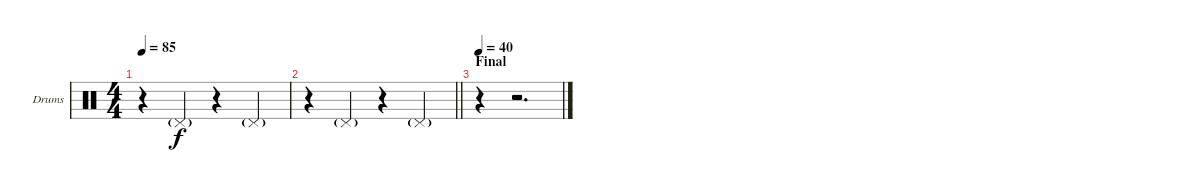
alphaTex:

\bracketExtendMode groupsimilarinstruments
\firstSystemTrackNameOrientation horizontal
\otherSystemsTrackNameOrientation horizontal
\track ("Drumkit" "Drums") {instrument percussion}
\staff {score}
\articulation defaults
\ts (4 4)
\tempo 85
\clef neutral
\ks c
r.4{dy f} "Pedal Hi-Hat (hit)"{g}.4 r.4 "Pedal Hi-Hat (hit)"{g}.4 |
\barLineRight lightlight
r.4 "Pedal Hi-Hat (hit)"{g}.4 r.4 "Pedal Hi-Hat (hit)"{g}.4 |
\section ("" "Final")
\tempo 40
r.4 r.2{d}
